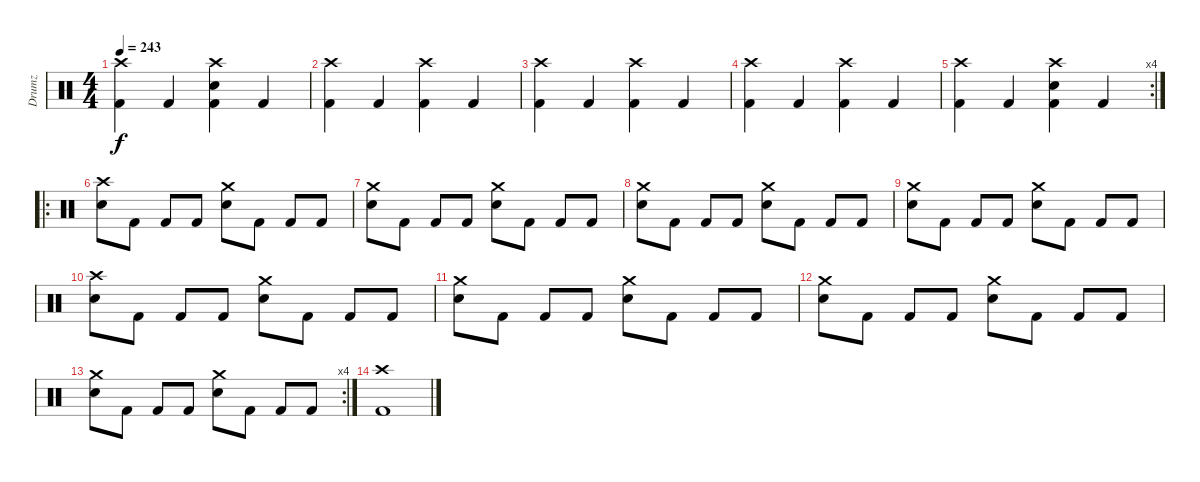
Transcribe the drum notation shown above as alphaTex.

\track ("Drumz" "Drumz") {instrument percussion}
\staff {score}
\articulation defaults
\ts (4 4)
\tempo 243
\clef neutral
\ks c
("Crash high (hit)" "Kick (hit) 2").4{dy f} "Kick (hit) 2".4 ("Crash high (hit)" "Electric Snare (hit)" "Kick (hit) 2").4 "Kick (hit) 2".4 |
("Crash high (hit)" "Kick (hit) 2").4 "Kick (hit) 2".4 ("Crash high (hit)" "Kick (hit) 2").4 "Kick (hit) 2".4 |
("Crash high (hit)" "Kick (hit) 2").4 "Kick (hit) 2".4 ("Crash high (hit)" "Kick (hit) 2").4 "Kick (hit) 2".4 |
("Crash high (hit)" "Kick (hit) 2").4 "Kick (hit) 2".4 ("Crash high (hit)" "Kick (hit) 2").4 "Kick (hit) 2".4 |
\rc 4
("Crash high (hit)" "Kick (hit) 2").4 "Kick (hit) 2".4 ("Crash high (hit)" "Electric Snare (hit)" "Kick (hit) 2").4 "Kick (hit) 2".4 |
\ro
("Crash high (hit)" "Electric Snare (hit)").8 "Kick (hit) 2".8 "Kick (hit) 2".8 "Kick (hit) 2".8 ("Crash medium (hit)" "Electric Snare (hit)").8 "Kick (hit) 2".8 "Kick (hit) 2".8 "Kick (hit) 2".8 |
("Crash medium (hit)" "Electric Snare (hit)").8 "Kick (hit) 2".8 "Kick (hit) 2".8 "Kick (hit) 2".8 ("Crash medium (hit)" "Electric Snare (hit)").8 "Kick (hit) 2".8 "Kick (hit) 2".8 "Kick (hit) 2".8 |
("Crash medium (hit)" "Electric Snare (hit)").8 "Kick (hit) 2".8 "Kick (hit) 2".8 "Kick (hit) 2".8 ("Crash medium (hit)" "Electric Snare (hit)").8 "Kick (hit) 2".8 "Kick (hit) 2".8 "Kick (hit) 2".8 |
("Crash medium (hit)" "Electric Snare (hit)").8 "Kick (hit) 2".8 "Kick (hit) 2".8 "Kick (hit) 2".8 ("Crash medium (hit)" "Electric Snare (hit)").8 "Kick (hit) 2".8 "Kick (hit) 2".8 "Kick (hit) 2".8 |
("Crash high (hit)" "Electric Snare (hit)").8 "Kick (hit) 2".8 "Kick (hit) 2".8 "Kick (hit) 2".8 ("Crash medium (hit)" "Electric Snare (hit)").8 "Kick (hit) 2".8 "Kick (hit) 2".8 "Kick (hit) 2".8 |
("Crash medium (hit)" "Electric Snare (hit)").8 "Kick (hit) 2".8 "Kick (hit) 2".8 "Kick (hit) 2".8 ("Crash medium (hit)" "Electric Snare (hit)").8 "Kick (hit) 2".8 "Kick (hit) 2".8 "Kick (hit) 2".8 |
("Crash medium (hit)" "Electric Snare (hit)").8 "Kick (hit) 2".8 "Kick (hit) 2".8 "Kick (hit) 2".8 ("Crash medium (hit)" "Electric Snare (hit)").8 "Kick (hit) 2".8 "Kick (hit) 2".8 "Kick (hit) 2".8 |
\rc 4
("Crash medium (hit)" "Electric Snare (hit)").8 "Kick (hit) 2".8 "Kick (hit) 2".8 "Kick (hit) 2".8 ("Crash medium (hit)" "Electric Snare (hit)").8 "Kick (hit) 2".8 "Kick (hit) 2".8 "Kick (hit) 2".8 |
("Crash high (hit)" "Kick (hit) 2").1
